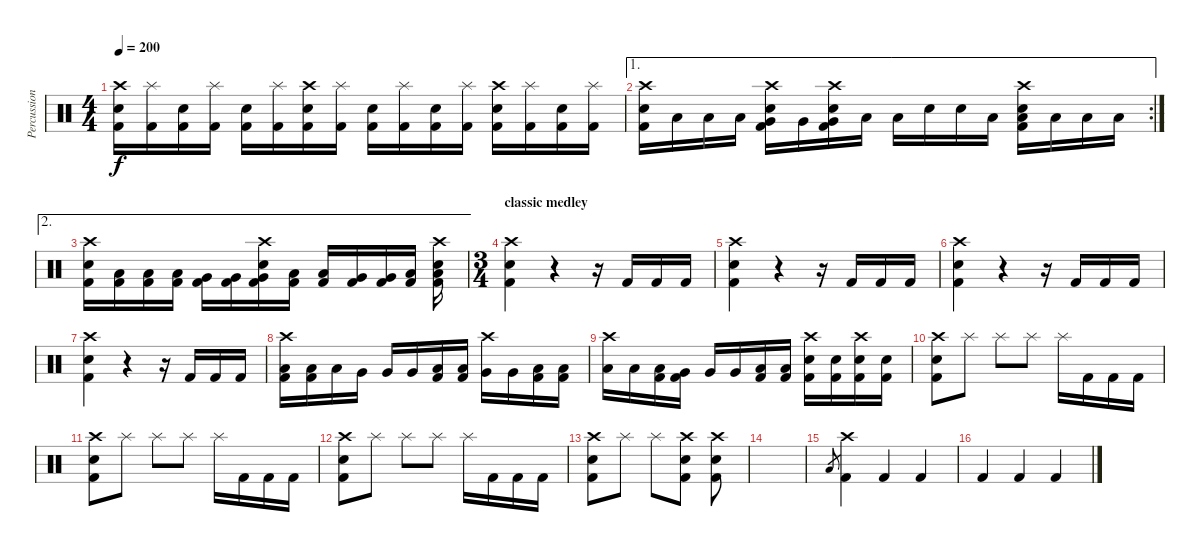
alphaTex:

\track ("Percussion" "Percussion") {instrument percussion}
\staff {score}
\articulation defaults
\ts (4 4)
\tempo 200
\clef neutral
\ks c
("Crash high (hit)" "Snare (hit) 2" "Kick (hit) 2").16{dy f} ("Splash (hit)" "Kick (hit) 2").16 ("Snare (hit) 2" "Kick (hit) 2").16 ("Splash (hit)" "Kick (hit) 2").16 ("Snare (hit) 2" "Kick (hit) 2").16 ("Splash (hit)" "Kick (hit) 2").16 ("Crash high (hit)" "Snare (hit) 2" "Kick (hit) 2").16 ("Splash (hit)" "Kick (hit) 2").16 ("Snare (hit) 2" "Kick (hit) 2").16 ("Splash (hit)" "Kick (hit) 2").16 ("Snare (hit) 2" "Kick (hit) 2").16 ("Splash (hit)" "Kick (hit) 2").16 ("Crash high (hit)" "Snare (hit) 2" "Kick (hit) 2").16 ("Splash (hit)" "Kick (hit) 2").16 ("Snare (hit) 2" "Kick (hit) 2").16 ("Splash (hit)" "Kick (hit) 2").16 |
\ae 1
\rc 2
("Crash high (hit)" "Snare (hit) 2" "Kick (hit) 2").16 "Low Tom (hit)".16 "Low Tom (hit)".16 "Low Tom (hit)".16 ("Very Low Tom (hit)" "Crash high (hit)" "Snare (hit) 2" "Kick (hit) 2").16 "Very Low Tom (hit)".16 ("Very Low Tom (hit)" "Crash high (hit)" "Snare (hit) 2" "Kick (hit) 2").16 "Low Floor Tom (hit)".16 "Low Floor Tom (hit)".16 "Electric Snare (hit)".16 "Electric Snare (hit)".16 "Low Tom (hit)".16 ("Low Tom (hit)" "Crash high (hit)" "Snare (hit) 2" "Kick (hit) 2").16 "Low Floor Tom (hit)".16 "Low Floor Tom (hit)".16 "Low Floor Tom (hit)".16 |
\ae 2
("Crash high (hit)" "Snare (hit) 2" "Kick (hit) 2").16 ("Low Tom (hit)" "Kick (hit) 2").16 ("Low Tom (hit)" "Kick (hit) 2").16 ("Low Tom (hit)" "Kick (hit) 2").16 ("Very Low Tom (hit)" "Kick (hit) 2").16 ("Very Low Tom (hit)" "Kick (hit) 2").16 ("Very Low Tom (hit)" "Crash high (hit)" "Snare (hit) 2" "Kick (hit) 2").16 ("Low Floor Tom (hit)" "Kick (hit) 2").16 ("Low Floor Tom (hit)" "Kick (hit) 2").16 ("Very Low Tom (hit)" "Kick (hit) 2").16 ("Very Low Tom (hit)" "Kick (hit) 2").16 ("Low Tom (hit)" "Kick (hit) 2").16 ("Low Tom (hit)" "Crash high (hit)" "Snare (hit) 2" "Kick (hit) 2").16 |
\ts (3 4)
\section ("" "classic medley")
("Crash high (hit)" "Snare (hit) 2" "Kick (hit) 2").4 r.4 r.16 "Kick (hit) 2".16 "Kick (hit) 2".16 "Kick (hit) 2".16 |
("Crash high (hit)" "Snare (hit) 2" "Kick (hit) 2").4 r.4 r.16 "Kick (hit) 2".16 "Kick (hit) 2".16 "Kick (hit) 2".16 |
("Crash high (hit)" "Snare (hit) 2" "Kick (hit) 2").4 r.4 r.16 "Kick (hit) 2".16 "Kick (hit) 2".16 "Kick (hit) 2".16 |
("Crash high (hit)" "Snare (hit) 2" "Kick (hit) 2").4 r.4 r.16 "Kick (hit) 2".16 "Kick (hit) 2".16 "Kick (hit) 2".16 |
("Crash high (hit)" "Low Tom (hit)" "Kick (hit) 2").16 ("Low Tom (hit)" "Kick (hit) 2").16 "Low Tom (hit)".16 "Very Low Tom (hit)".16 "Very Low Tom (hit)".16 "Very Low Tom (hit)".16 ("Low Tom (hit)" "Kick (hit) 2").16 ("Low Tom (hit)" "Kick (hit) 2").16 ("Crash high (hit)" "Very Low Tom (hit)").16 "Very Low Tom (hit)".16 ("Low Tom (hit)" "Kick (hit) 2").16 ("Low Tom (hit)" "Kick (hit) 2").16 |
("Crash high (hit)" "Low Floor Tom (hit)").16 "Low Floor Tom (hit)".16 ("Low Floor Tom (hit)" "Kick (hit) 2").16 ("Very Low Tom (hit)" "Kick (hit) 2").16 "Very Low Tom (hit)".16 "Very Low Tom (hit)".16 ("Low Tom (hit)" "Kick (hit) 2").16 ("Low Tom (hit)" "Kick (hit) 2").16 ("Crash high (hit)" "Electric Snare (hit)" "Kick (hit) 2").16 ("Electric Snare (hit)" "Kick (hit) 2").16 ("Crash high (hit)" "Electric Snare (hit)" "Kick (hit) 2").16 ("Snare (hit) 2" "Kick (hit) 2").16 |
("Crash high (hit)" "Snare (hit) 2" "Kick (hit) 2").8 "Splash (hit)".8 "Splash (hit)".8 "Splash (hit)".8 "Splash (hit)".16 "Kick (hit) 2".16 "Kick (hit) 2".16 "Kick (hit) 2".16 |
("Crash high (hit)" "Snare (hit) 2" "Kick (hit) 2").8 "Splash (hit)".8 "Splash (hit)".8 "Splash (hit)".8 "Splash (hit)".16 "Kick (hit) 2".16 "Kick (hit) 2".16 "Kick (hit) 2".16 |
("Crash high (hit)" "Snare (hit) 2" "Kick (hit) 2").8 "Splash (hit)".8 "Splash (hit)".8 "Splash (hit)".8 "Splash (hit)".16 "Kick (hit) 2".16 "Kick (hit) 2".16 "Kick (hit) 2".16 |
("Crash high (hit)" "Snare (hit) 2" "Kick (hit) 2").8 "Splash (hit)".8 "Splash (hit)".8 ("Crash high (hit)" "Snare (hit) 2" "Kick (hit) 2").8 ("Crash high (hit)" "Snare (hit) 2" "Kick (hit) 2").8 |
|
"Low Tom (hit)".8{gr} ("Crash high (hit)" "Kick (hit) 2").4 "Kick (hit) 2".4 "Kick (hit) 2".4 |
"Kick (hit) 2".4 "Kick (hit) 2".4 "Kick (hit) 2".4
